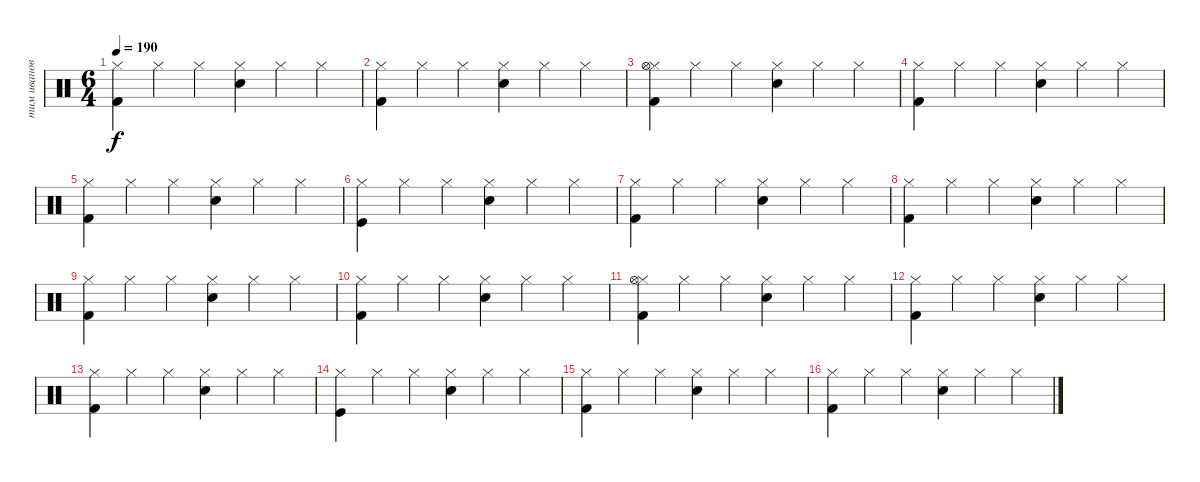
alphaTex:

\track ("тим иванов" "тим иванов") {instrument percussion}
\staff {score}
\articulation defaults
\ts (6 4)
\tempo 190
\clef neutral
\ks c
("Hi-Hat (closed)" "Kick (hit) 2").4{dy f} "Hi-Hat (closed)".4 "Hi-Hat (closed)".4 ("Hi-Hat (closed)" "Electric Snare (hit)").4 "Hi-Hat (closed)".4 "Hi-Hat (closed)".4 |
("Hi-Hat (closed)" "Kick (hit) 2").4 "Hi-Hat (closed)".4 "Hi-Hat (closed)".4 ("Hi-Hat (closed)" "Electric Snare (hit)").4 "Hi-Hat (closed)".4 "Hi-Hat (closed)".4 |
("Hi-Hat (closed)" "Kick (hit) 2" "Hi-Hat (open)").4 "Hi-Hat (closed)".4 "Hi-Hat (closed)".4 ("Hi-Hat (closed)" "Electric Snare (hit)").4 "Hi-Hat (closed)".4 "Hi-Hat (closed)".4 |
("Hi-Hat (closed)" "Kick (hit) 2").4 "Hi-Hat (closed)".4 "Hi-Hat (closed)".4 ("Hi-Hat (closed)" "Electric Snare (hit)").4 "Hi-Hat (closed)".4 "Hi-Hat (closed)".4 |
("Hi-Hat (closed)" "Kick (hit) 2").4 "Hi-Hat (closed)".4 "Hi-Hat (closed)".4 ("Hi-Hat (closed)" "Electric Snare (hit)").4 "Hi-Hat (closed)".4 "Hi-Hat (closed)".4 |
("Hi-Hat (closed)" "Kick (hit)").4 "Hi-Hat (closed)".4 "Hi-Hat (closed)".4 ("Hi-Hat (closed)" "Electric Snare (hit)").4 "Hi-Hat (closed)".4 "Hi-Hat (closed)".4 |
("Hi-Hat (closed)" "Kick (hit) 2").4 "Hi-Hat (closed)".4 "Hi-Hat (closed)".4 ("Hi-Hat (closed)" "Electric Snare (hit)").4 "Hi-Hat (closed)".4 "Hi-Hat (closed)".4 |
("Hi-Hat (closed)" "Kick (hit) 2").4 "Hi-Hat (closed)".4 "Hi-Hat (closed)".4 ("Hi-Hat (closed)" "Electric Snare (hit)").4 "Hi-Hat (closed)".4 "Hi-Hat (closed)".4 |
("Hi-Hat (closed)" "Kick (hit) 2").4 "Hi-Hat (closed)".4 "Hi-Hat (closed)".4 ("Hi-Hat (closed)" "Electric Snare (hit)").4 "Hi-Hat (closed)".4 "Hi-Hat (closed)".4 |
("Hi-Hat (closed)" "Kick (hit) 2").4 "Hi-Hat (closed)".4 "Hi-Hat (closed)".4 ("Hi-Hat (closed)" "Electric Snare (hit)").4 "Hi-Hat (closed)".4 "Hi-Hat (closed)".4 |
("Hi-Hat (closed)" "Kick (hit) 2" "Hi-Hat (open)").4 "Hi-Hat (closed)".4 "Hi-Hat (closed)".4 ("Hi-Hat (closed)" "Electric Snare (hit)").4 "Hi-Hat (closed)".4 "Hi-Hat (closed)".4 |
("Hi-Hat (closed)" "Kick (hit) 2").4 "Hi-Hat (closed)".4 "Hi-Hat (closed)".4 ("Hi-Hat (closed)" "Electric Snare (hit)").4 "Hi-Hat (closed)".4 "Hi-Hat (closed)".4 |
("Hi-Hat (closed)" "Kick (hit) 2").4 "Hi-Hat (closed)".4 "Hi-Hat (closed)".4 ("Hi-Hat (closed)" "Electric Snare (hit)").4 "Hi-Hat (closed)".4 "Hi-Hat (closed)".4 |
("Hi-Hat (closed)" "Kick (hit)").4 "Hi-Hat (closed)".4 "Hi-Hat (closed)".4 ("Hi-Hat (closed)" "Electric Snare (hit)").4 "Hi-Hat (closed)".4 "Hi-Hat (closed)".4 |
("Hi-Hat (closed)" "Kick (hit) 2").4 "Hi-Hat (closed)".4 "Hi-Hat (closed)".4 ("Hi-Hat (closed)" "Electric Snare (hit)").4 "Hi-Hat (closed)".4 "Hi-Hat (closed)".4 |
("Hi-Hat (closed)" "Kick (hit) 2").4 "Hi-Hat (closed)".4 "Hi-Hat (closed)".4 ("Hi-Hat (closed)" "Electric Snare (hit)").4 "Hi-Hat (closed)".4 "Hi-Hat (closed)".4
